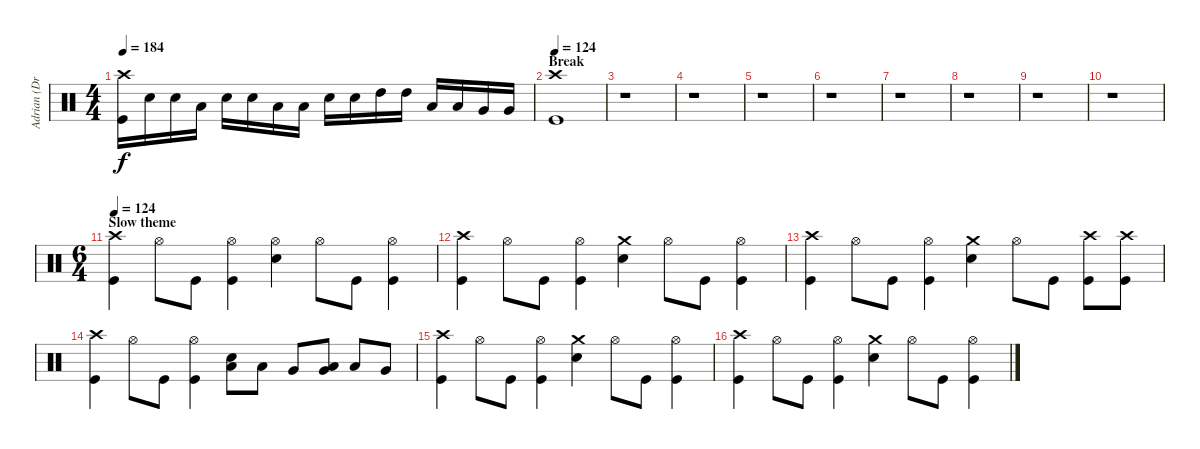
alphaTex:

\track ("Adrian (Drums)" "Adrian (Dr") {instrument percussion}
\staff {score}
\articulation defaults
\ts (4 4)
\tempo 184
\clef neutral
\ks c
("Crash high (hit)" "Kick (hit)").16{dy f} "Electric Snare (hit)".16 "Electric Snare (hit)".16 "Low Tom (hit)".16 "Electric Snare (hit)".16 "Electric Snare (hit)".16 "Low Tom (hit)".16 "Low Tom (hit)".16 "Electric Snare (hit)".16 "Electric Snare (hit)".16 "High Tom (hit)".16 "High Tom (hit)".16 "Low Tom (hit)".16 "Low Tom (hit)".16 "Very Low Tom (hit)".16 "Very Low Tom (hit)".16 |
\section ("" "Break")
\tempo 124
("Crash high (hit)" "Kick (hit)").1 |
r.1 |
r.1 |
r.1 |
r.1 |
r.1 |
r.1 |
r.1 |
r.1 |
\ts (6 4)
\section ("" "Slow theme")
\tempo 124
("Crash high (hit)" "Kick (hit)").4 "Hi-Hat (open)".8 "Kick (hit)".8 ("Hi-Hat (open)" "Kick (hit)").4 ("Hi-Hat (open)" "Electric Snare (hit)").4 "Hi-Hat (open)".8 "Kick (hit)".8 ("Hi-Hat (open)" "Kick (hit)").4 |
("Crash high (hit)" "Kick (hit)").4 "Hi-Hat (open)".8 "Kick (hit)".8 ("Hi-Hat (open)" "Kick (hit)").4 ("Crash medium (hit)" "Electric Snare (hit)").4 "Hi-Hat (open)".8 "Kick (hit)".8 ("Hi-Hat (open)" "Kick (hit)").4 |
("Crash high (hit)" "Kick (hit)").4 "Hi-Hat (open)".8 "Kick (hit)".8 ("Hi-Hat (open)" "Kick (hit)").4 ("Crash medium (hit)" "Electric Snare (hit)").4 "Hi-Hat (open)".8 "Kick (hit)".8 ("Crash high (hit)" "Kick (hit)").8 ("Crash high (hit)" "Kick (hit)").8 |
("Crash high (hit)" "Kick (hit)").4 "Hi-Hat (open)".8 "Kick (hit)".8 ("Hi-Hat (open)" "Kick (hit)").4 ("Low Tom (hit)" "Electric Snare (hit)").8 "Low Tom (hit)".8 "Very Low Tom (hit)".8 ("Low Tom (hit)" "Very Low Tom (hit)").8{bu 120} "Low Tom (hit)".8 "Very Low Tom (hit)".8 |
("Crash high (hit)" "Kick (hit)").4 "Hi-Hat (open)".8 "Kick (hit)".8 ("Hi-Hat (open)" "Kick (hit)").4 ("Crash medium (hit)" "Electric Snare (hit)").4 "Hi-Hat (open)".8 "Kick (hit)".8 ("Hi-Hat (open)" "Kick (hit)").4 |
("Crash high (hit)" "Kick (hit)").4 "Hi-Hat (open)".8 "Kick (hit)".8 ("Hi-Hat (open)" "Kick (hit)").4 ("Crash medium (hit)" "Electric Snare (hit)").4 "Hi-Hat (open)".8 "Kick (hit)".8 ("Hi-Hat (open)" "Kick (hit)").4
